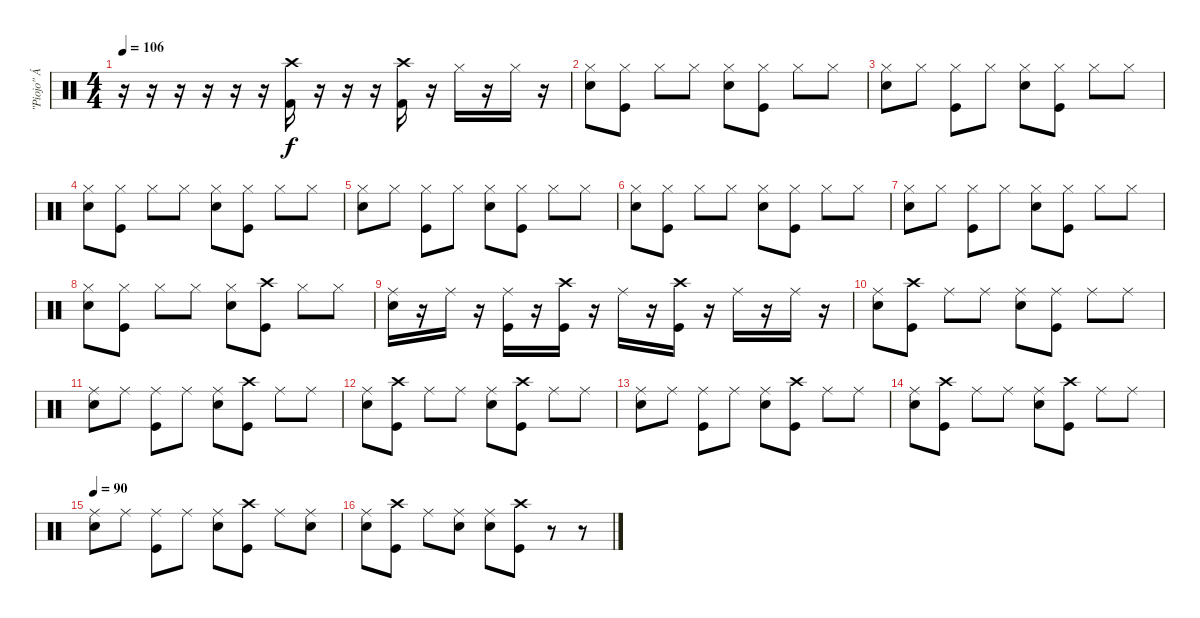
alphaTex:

\track (" \"Piojo\" Ávalos" " \"Piojo\" Á") {instrument percussion}
\staff {score}
\articulation defaults
\ts (4 4)
\tempo 106
\clef neutral
\ks c
r.16{dy mf} r.16 r.16 r.16 r.16 r.16 ("Crash high (hit)" "Kick (hit) 2").16{dy f} r.16 r.16 r.16 ("Crash high (hit)" "Kick (hit) 2").16 r.16 "Hi-Hat (closed)".16 r.16 "Hi-Hat (closed)".16 r.16 |
("Hi-Hat (closed)" "Electric Snare (hit)").8 ("Hi-Hat (closed)" "Kick (hit)").8 "Hi-Hat (closed)".8 "Hi-Hat (closed)".8 ("Hi-Hat (closed)" "Electric Snare (hit)").8 ("Hi-Hat (closed)" "Kick (hit)").8 "Hi-Hat (closed)".8 "Hi-Hat (closed)".8 |
("Hi-Hat (closed)" "Electric Snare (hit)").8 "Hi-Hat (closed)".8 ("Hi-Hat (closed)" "Kick (hit)").8 "Hi-Hat (closed)".8 ("Hi-Hat (closed)" "Electric Snare (hit)").8 ("Hi-Hat (closed)" "Kick (hit)").8 "Hi-Hat (closed)".8 "Hi-Hat (closed)".8 |
("Hi-Hat (closed)" "Electric Snare (hit)").8 ("Hi-Hat (closed)" "Kick (hit)").8 "Hi-Hat (closed)".8 "Hi-Hat (closed)".8 ("Hi-Hat (closed)" "Electric Snare (hit)").8 ("Hi-Hat (closed)" "Kick (hit)").8 "Hi-Hat (closed)".8 "Hi-Hat (closed)".8 |
("Hi-Hat (closed)" "Electric Snare (hit)").8 "Hi-Hat (closed)".8 ("Hi-Hat (closed)" "Kick (hit)").8 "Hi-Hat (closed)".8 ("Hi-Hat (closed)" "Electric Snare (hit)").8 ("Hi-Hat (closed)" "Kick (hit)").8 "Hi-Hat (closed)".8 "Hi-Hat (closed)".8 |
("Hi-Hat (closed)" "Electric Snare (hit)").8 ("Hi-Hat (closed)" "Kick (hit)").8 "Hi-Hat (closed)".8 "Hi-Hat (closed)".8 ("Hi-Hat (closed)" "Electric Snare (hit)").8 ("Hi-Hat (closed)" "Kick (hit)").8 "Hi-Hat (closed)".8 "Hi-Hat (closed)".8 |
("Hi-Hat (closed)" "Electric Snare (hit)").8 "Hi-Hat (closed)".8 ("Hi-Hat (closed)" "Kick (hit)").8 "Hi-Hat (closed)".8 ("Hi-Hat (closed)" "Electric Snare (hit)").8 ("Hi-Hat (closed)" "Kick (hit)").8 "Hi-Hat (closed)".8 "Hi-Hat (closed)".8 |
("Hi-Hat (closed)" "Electric Snare (hit)").8 ("Hi-Hat (closed)" "Kick (hit)").8 "Hi-Hat (closed)".8 "Hi-Hat (closed)".8 ("Hi-Hat (closed)" "Electric Snare (hit)").8 ("Crash high (hit)" "Kick (hit)").8 "Hi-Hat (closed)".8 "Hi-Hat (closed)".8 |
("Ride (middle)" "Electric Snare (hit)").16 r.16 "Ride (middle)".16 r.16 ("Ride (middle)" "Kick (hit)").16 r.16 ("Crash high (hit)" "Kick (hit)").16 r.16 "Ride (middle)".16 r.16 ("Crash high (hit)" "Kick (hit)").16 r.16 "Ride (middle)".16 r.16 "Ride (middle)".16 r.16 |
("Ride (middle)" "Electric Snare (hit)").8 ("Crash high (hit)" "Kick (hit)").8 "Ride (middle)".8 "Ride (middle)".8 ("Ride (middle)" "Electric Snare (hit)").8 ("Ride (middle)" "Kick (hit)").8 "Ride (middle)".8 "Ride (middle)".8 |
("Ride (middle)" "Electric Snare (hit)").8 "Ride (middle)".8 ("Ride (middle)" "Kick (hit)").8 "Ride (middle)".8 ("Ride (middle)" "Electric Snare (hit)").8 ("Crash high (hit)" "Kick (hit)").8 "Ride (middle)".8 "Ride (middle)".8 |
("Ride (middle)" "Electric Snare (hit)").8 ("Crash high (hit)" "Kick (hit)").8 "Ride (middle)".8 "Ride (middle)".8 ("Ride (middle)" "Electric Snare (hit)").8 ("Crash high (hit)" "Kick (hit)").8 "Ride (middle)".8 "Ride (middle)".8 |
("Ride (middle)" "Electric Snare (hit)").8 "Ride (middle)".8 ("Ride (middle)" "Kick (hit)").8 "Ride (middle)".8 ("Ride (middle)" "Electric Snare (hit)").8 ("Crash high (hit)" "Kick (hit)").8 "Ride (middle)".8 "Ride (middle)".8 |
("Ride (middle)" "Electric Snare (hit)").8 ("Crash high (hit)" "Kick (hit)").8 "Ride (middle)".8 "Ride (middle)".8 ("Ride (middle)" "Electric Snare (hit)").8 ("Crash high (hit)" "Kick (hit)").8 "Ride (middle)".8 "Ride (middle)".8 |
\tempo 90
("Ride (middle)" "Electric Snare (hit)").8 "Ride (middle)".8 ("Ride (middle)" "Kick (hit)").8 "Ride (middle)".8 ("Ride (middle)" "Electric Snare (hit)").8 ("Crash high (hit)" "Kick (hit)").8 "Ride (middle)".8 ("Ride (middle)" "Electric Snare (hit)").8 |
("Ride (middle)" "Electric Snare (hit)").8 ("Crash high (hit)" "Kick (hit)").8 "Ride (middle)".8 ("Ride (middle)" "Electric Snare (hit)").8 ("Ride (middle)" "Electric Snare (hit)").8 ("Crash high (hit)" "Kick (hit)").8 r.8 r.8
